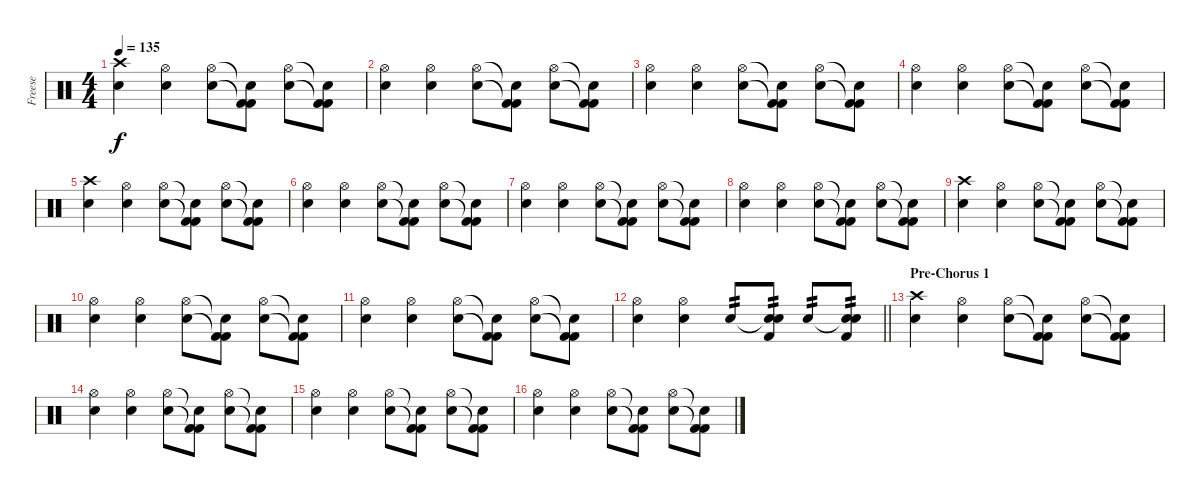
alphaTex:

\track ("Freese" "Freese") {instrument percussion}
\staff {score}
\articulation defaults
\ts (4 4)
\tempo 135
\clef neutral
\ks c
("Crash high (hit)" "Electric Snare (hit)").4{dy f} ("Hi-Hat (open)" "Electric Snare (hit)").4 ("Hi-Hat (open)" "Electric Snare (hit)").8 ("Snare (hit)"{t} "Kick (hit) 2"{t} "Kick (hit) 2").8 ("Hi-Hat (open)" "Electric Snare (hit)").8 ("Snare (hit)"{t} "Kick (hit) 2"{t} "Kick (hit) 2").8 |
("Hi-Hat (open)" "Electric Snare (hit)").4 ("Hi-Hat (open)" "Electric Snare (hit)").4 ("Hi-Hat (open)" "Electric Snare (hit)").8 ("Snare (hit)"{t} "Kick (hit) 2"{t} "Kick (hit) 2").8 ("Hi-Hat (open)" "Electric Snare (hit)").8 ("Snare (hit)"{t} "Kick (hit) 2"{t} "Kick (hit) 2").8 |
("Hi-Hat (open)" "Electric Snare (hit)").4 ("Hi-Hat (open)" "Electric Snare (hit)").4 ("Hi-Hat (open)" "Electric Snare (hit)").8 ("Snare (hit)"{t} "Kick (hit) 2"{t} "Kick (hit) 2").8 ("Hi-Hat (open)" "Electric Snare (hit)").8 ("Snare (hit)"{t} "Kick (hit) 2"{t} "Kick (hit) 2").8 |
("Hi-Hat (open)" "Electric Snare (hit)").4 ("Hi-Hat (open)" "Electric Snare (hit)").4 ("Hi-Hat (open)" "Electric Snare (hit)").8 ("Snare (hit)"{t} "Kick (hit) 2"{t} "Kick (hit) 2").8 ("Hi-Hat (open)" "Electric Snare (hit)").8 ("Snare (hit)"{t} "Kick (hit) 2"{t} "Kick (hit) 2").8 |
("Crash high (hit)" "Electric Snare (hit)").4 ("Hi-Hat (open)" "Electric Snare (hit)").4 ("Hi-Hat (open)" "Electric Snare (hit)").8 ("Snare (hit)"{t} "Kick (hit) 2"{t} "Kick (hit) 2").8 ("Hi-Hat (open)" "Electric Snare (hit)").8 ("Snare (hit)"{t} "Kick (hit) 2"{t} "Kick (hit) 2").8 |
("Hi-Hat (open)" "Electric Snare (hit)").4 ("Hi-Hat (open)" "Electric Snare (hit)").4 ("Hi-Hat (open)" "Electric Snare (hit)").8 ("Snare (hit)"{t} "Kick (hit) 2"{t} "Kick (hit) 2").8 ("Hi-Hat (open)" "Electric Snare (hit)").8 ("Snare (hit)"{t} "Kick (hit) 2"{t} "Kick (hit) 2").8 |
("Hi-Hat (open)" "Electric Snare (hit)").4 ("Hi-Hat (open)" "Electric Snare (hit)").4 ("Hi-Hat (open)" "Electric Snare (hit)").8 ("Snare (hit)"{t} "Kick (hit) 2"{t} "Kick (hit) 2").8 ("Hi-Hat (open)" "Electric Snare (hit)").8 ("Snare (hit)"{t} "Kick (hit) 2"{t} "Kick (hit) 2").8 |
("Hi-Hat (open)" "Electric Snare (hit)").4 ("Hi-Hat (open)" "Electric Snare (hit)").4 ("Hi-Hat (open)" "Electric Snare (hit)").8 ("Snare (hit)"{t} "Kick (hit) 2"{t} "Kick (hit) 2").8 ("Hi-Hat (open)" "Electric Snare (hit)").8 ("Snare (hit)"{t} "Kick (hit) 2"{t} "Kick (hit) 2").8 |
("Crash high (hit)" "Electric Snare (hit)").4 ("Hi-Hat (open)" "Electric Snare (hit)").4 ("Hi-Hat (open)" "Electric Snare (hit)").8 ("Snare (hit)"{t} "Kick (hit) 2"{t} "Kick (hit) 2").8 ("Hi-Hat (open)" "Electric Snare (hit)").8 ("Snare (hit)"{t} "Kick (hit) 2"{t} "Kick (hit) 2").8 |
("Hi-Hat (open)" "Electric Snare (hit)").4 ("Hi-Hat (open)" "Electric Snare (hit)").4 ("Hi-Hat (open)" "Electric Snare (hit)").8 ("Snare (hit)"{t} "Kick (hit) 2"{t} "Kick (hit) 2").8 ("Hi-Hat (open)" "Electric Snare (hit)").8 ("Snare (hit)"{t} "Kick (hit) 2"{t} "Kick (hit) 2").8 |
("Hi-Hat (open)" "Electric Snare (hit)").4 ("Hi-Hat (open)" "Electric Snare (hit)").4 ("Hi-Hat (open)" "Electric Snare (hit)").8 ("Snare (hit)"{t} "Kick (hit) 2"{t} "Kick (hit) 2").8 ("Hi-Hat (open)" "Electric Snare (hit)").8 ("Snare (hit)"{t} "Kick (hit) 2"{t} "Kick (hit) 2").8 |
\barLineRight lightlight
("Hi-Hat (open)" "Electric Snare (hit)").4 ("Hi-Hat (open)" "Electric Snare (hit)").4 "Electric Snare (hit)".8{tp 2} ("Snare (hit)"{t} "Electric Snare (hit)" "Kick (hit) 2").8{tp 2} "Electric Snare (hit)".8{tp 2} ("Snare (hit)"{t} "Electric Snare (hit)" "Kick (hit) 2").8{tp 2} |
\section ("" "Pre-Chorus 1")
("Crash high (hit)" "Electric Snare (hit)").4 ("Hi-Hat (open)" "Electric Snare (hit)").4 ("Hi-Hat (open)" "Electric Snare (hit)").8 ("Snare (hit)"{t} "Kick (hit) 2"{t} "Kick (hit) 2").8 ("Hi-Hat (open)" "Electric Snare (hit)").8 ("Snare (hit)"{t} "Kick (hit) 2"{t} "Kick (hit) 2").8 |
("Hi-Hat (open)" "Electric Snare (hit)").4 ("Hi-Hat (open)" "Electric Snare (hit)").4 ("Hi-Hat (open)" "Electric Snare (hit)").8 ("Snare (hit)"{t} "Kick (hit) 2"{t} "Kick (hit) 2").8 ("Hi-Hat (open)" "Electric Snare (hit)").8 ("Snare (hit)"{t} "Kick (hit) 2"{t} "Kick (hit) 2").8 |
("Hi-Hat (open)" "Electric Snare (hit)").4 ("Hi-Hat (open)" "Electric Snare (hit)").4 ("Hi-Hat (open)" "Electric Snare (hit)").8 ("Snare (hit)"{t} "Kick (hit) 2"{t} "Kick (hit) 2").8 ("Hi-Hat (open)" "Electric Snare (hit)").8 ("Snare (hit)"{t} "Kick (hit) 2"{t} "Kick (hit) 2").8 |
("Hi-Hat (open)" "Electric Snare (hit)").4 ("Hi-Hat (open)" "Electric Snare (hit)").4 ("Hi-Hat (open)" "Electric Snare (hit)").8 ("Snare (hit)"{t} "Kick (hit) 2"{t} "Kick (hit) 2").8 ("Hi-Hat (open)" "Electric Snare (hit)").8 ("Snare (hit)"{t} "Kick (hit) 2"{t} "Kick (hit) 2").8
